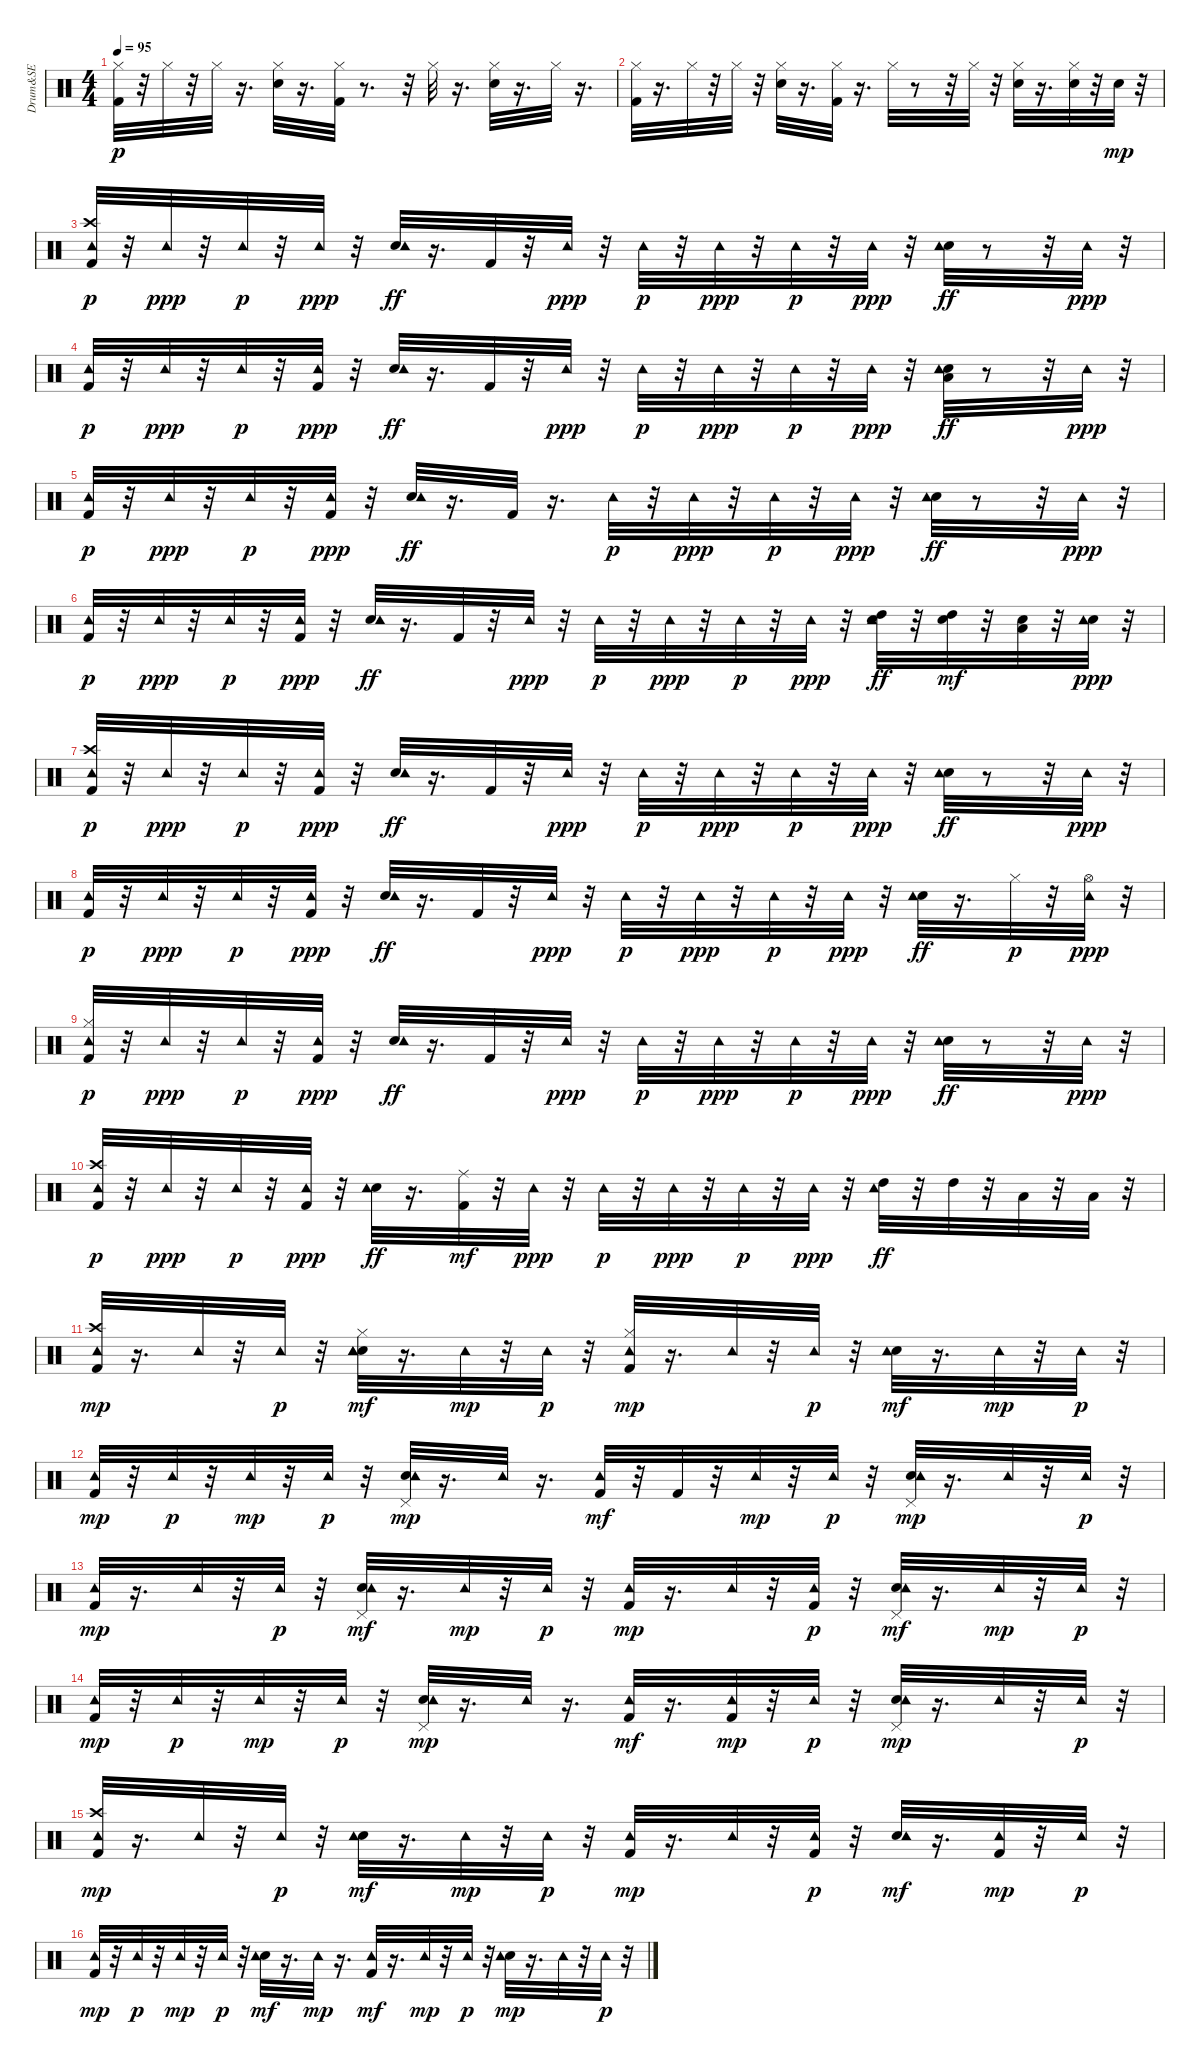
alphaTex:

\track ("Drum&SE" "Drum&SE") {instrument percussion}
\staff {score}
\articulation defaults
\ts (4 4)
\tempo 95
\clef neutral
\ks c
("Kick (hit) 2" "Hi-Hat (closed)").32{dy p} r.32 "Hi-Hat (closed)".32 r.32 "Hi-Hat (closed)".32 r.16{d} ("Snare (hit) 2" "Hi-Hat (closed)").32 r.16{d} ("Kick (hit) 2" "Hi-Hat (closed)").32 r.8{d} r.32 "Hi-Hat (closed)".32 r.16{d} ("Snare (hit) 2" "Hi-Hat (closed)").32 r.16{d} "Hi-Hat (closed)".32 r.16{d} |
("Kick (hit) 2" "Hi-Hat (closed)").32 r.16{d} "Hi-Hat (closed)".32 r.32 "Hi-Hat (closed)".32 r.32 ("Snare (hit) 2" "Hi-Hat (closed)").32 r.16{d} ("Kick (hit) 2" "Hi-Hat (closed)").32 r.16{d} "Hi-Hat (closed)".32 r.8 r.32 "Hi-Hat (closed)".32 r.32 ("Snare (hit) 2" "Hi-Hat (closed)").32 r.16{d} ("Snare (hit) 2" "Hi-Hat (closed)").32 r.32 "Snare (hit) 2".32{dy mp} r.32 |
("Kick (hit) 2" "Crash high (hit)" "Tambourine (hit)").32{dy p} r.32 "Tambourine (hit)".32{dy ppp} r.32 "Tambourine (hit)".32{dy p} r.32 "Tambourine (hit)".32{dy ppp} r.32 ("Snare (hit) 2" "Tambourine (hit)").32{dy ff} r.16{d} "Kick (hit) 2".32 r.32 "Tambourine (hit)".32{dy ppp} r.32 "Tambourine (hit)".32{dy p} r.32 "Tambourine (hit)".32{dy ppp} r.32 "Tambourine (hit)".32{dy p} r.32 "Tambourine (hit)".32{dy ppp} r.32 ("Snare (hit) 2" "Tambourine (hit)").32{dy ff} r.8 r.32 "Tambourine (hit)".32{dy ppp} r.32 |
("Kick (hit) 2" "Tambourine (hit)").32{dy p} r.32 "Tambourine (hit)".32{dy ppp} r.32 "Tambourine (hit)".32{dy p} r.32 ("Kick (hit) 2" "Tambourine (hit)").32{dy ppp} r.32 ("Snare (hit) 2" "Tambourine (hit)").32{dy ff} r.16{d} "Kick (hit) 2".32 r.32 "Tambourine (hit)".32{dy ppp} r.32 "Tambourine (hit)".32{dy p} r.32 "Tambourine (hit)".32{dy ppp} r.32 "Tambourine (hit)".32{dy p} r.32 "Tambourine (hit)".32{dy ppp} r.32 ("Snare (hit) 2" "Low Floor Tom (hit)" "Tambourine (hit)").32{dy ff} r.8 r.32 "Tambourine (hit)".32{dy ppp} r.32 |
("Kick (hit) 2" "Tambourine (hit)").32{dy p} r.32 "Tambourine (hit)".32{dy ppp} r.32 "Tambourine (hit)".32{dy p} r.32 ("Kick (hit) 2" "Tambourine (hit)").32{dy ppp} r.32 ("Snare (hit) 2" "Tambourine (hit)").32{dy ff} r.16{d} "Kick (hit) 2".32 r.16{d} "Tambourine (hit)".32{dy p} r.32 "Tambourine (hit)".32{dy ppp} r.32 "Tambourine (hit)".32{dy p} r.32 "Tambourine (hit)".32{dy ppp} r.32 ("Snare (hit) 2" "Tambourine (hit)").32{dy ff} r.8 r.32 "Tambourine (hit)".32{dy ppp} r.32 |
("Kick (hit) 2" "Tambourine (hit)").32{dy p} r.32 "Tambourine (hit)".32{dy ppp} r.32 "Tambourine (hit)".32{dy p} r.32 ("Kick (hit) 2" "Tambourine (hit)").32{dy ppp} r.32 ("Snare (hit) 2" "Tambourine (hit)").32{dy ff} r.16{d} "Kick (hit) 2".32 r.32 "Tambourine (hit)".32{dy ppp} r.32 "Tambourine (hit)".32{dy p} r.32 "Tambourine (hit)".32{dy ppp} r.32 "Tambourine (hit)".32{dy p} r.32 "Tambourine (hit)".32{dy ppp} r.32 ("Snare (hit) 2" "High Tom (hit)" "Tambourine (hit)").32{dy ff} r.32 ("Snare (hit) 2" "High Tom (hit)").32{dy mf} r.32 ("Snare (hit) 2" "Low Floor Tom (hit)").32 r.32 ("Snare (hit) 2" "Tambourine (hit)").32{dy ppp} r.32 |
("Kick (hit) 2" "Crash high (hit)" "Tambourine (hit)").32{dy p} r.32 "Tambourine (hit)".32{dy ppp} r.32 "Tambourine (hit)".32{dy p} r.32 ("Kick (hit) 2" "Tambourine (hit)").32{dy ppp} r.32 ("Snare (hit) 2" "Tambourine (hit)").32{dy ff} r.16{d} "Kick (hit) 2".32 r.32 "Tambourine (hit)".32{dy ppp} r.32 "Tambourine (hit)".32{dy p} r.32 "Tambourine (hit)".32{dy ppp} r.32 "Tambourine (hit)".32{dy p} r.32 "Tambourine (hit)".32{dy ppp} r.32 ("Snare (hit) 2" "Tambourine (hit)").32{dy ff} r.8 r.32 "Tambourine (hit)".32{dy ppp} r.32 |
("Kick (hit) 2" "Tambourine (hit)").32{dy p} r.32 "Tambourine (hit)".32{dy ppp} r.32 "Tambourine (hit)".32{dy p} r.32 ("Kick (hit) 2" "Tambourine (hit)").32{dy ppp} r.32 ("Snare (hit) 2" "Tambourine (hit)").32{dy ff} r.16{d} "Kick (hit) 2".32 r.32 "Tambourine (hit)".32{dy ppp} r.32 "Tambourine (hit)".32{dy p} r.32 "Tambourine (hit)".32{dy ppp} r.32 "Tambourine (hit)".32{dy p} r.32 "Tambourine (hit)".32{dy ppp} r.32 ("Snare (hit) 2" "Tambourine (hit)").32{dy ff} r.16{d} "Hi-Hat (closed)".32{dy p} r.32 ("Hi-Hat (open)" "Tambourine (hit)").32{dy ppp} r.32 |
("Kick (hit) 2" "Hi-Hat (closed)" "Tambourine (hit)").32{dy p} r.32 "Tambourine (hit)".32{dy ppp} r.32 "Tambourine (hit)".32{dy p} r.32 ("Kick (hit) 2" "Tambourine (hit)").32{dy ppp} r.32 ("Snare (hit) 2" "Tambourine (hit)").32{dy ff} r.16{d} "Kick (hit) 2".32 r.32 "Tambourine (hit)".32{dy ppp} r.32 "Tambourine (hit)".32{dy p} r.32 "Tambourine (hit)".32{dy ppp} r.32 "Tambourine (hit)".32{dy p} r.32 "Tambourine (hit)".32{dy ppp} r.32 ("Snare (hit) 2" "Tambourine (hit)").32{dy ff} r.8 r.32 "Tambourine (hit)".32{dy ppp} r.32 |
("Kick (hit) 2" "Crash high (hit)" "Tambourine (hit)").32{dy p} r.32 "Tambourine (hit)".32{dy ppp} r.32 "Tambourine (hit)".32{dy p} r.32 ("Kick (hit) 2" "Tambourine (hit)").32{dy ppp} r.32 ("Snare (hit) 2" "Tambourine (hit)").32{dy ff} r.16{d} ("Kick (hit) 2" "Ride (middle)").32{dy mf} r.32 "Tambourine (hit)".32{dy ppp} r.32 "Tambourine (hit)".32{dy p} r.32 "Tambourine (hit)".32{dy ppp} r.32 "Tambourine (hit)".32{dy p} r.32 "Tambourine (hit)".32{dy ppp} r.32 ("High Tom (hit)" "Tambourine (hit)").32{dy ff} r.32 "High Tom (hit)".32 r.32 "Low Floor Tom (hit)".32 r.32 "Low Tom (hit)".32 r.32 |
("Kick (hit) 2" "Crash high (hit)" "Tambourine (hit)").32{dy mp} r.16{d} "Tambourine (hit)".32 r.32 "Tambourine (hit)".32{dy p} r.32 ("Snare (hit) 2" "Tambourine (hit)" "Hi-Hat (closed)" "Tambourine (hit)").32{dy mf} r.16{d} "Tambourine (hit)".32{dy mp} r.32 "Tambourine (hit)".32{dy p} r.32 ("Kick (hit) 2" "Hi-Hat (closed)" "Tambourine (hit)").32{dy mp} r.16{d} "Tambourine (hit)".32 r.32 "Tambourine (hit)".32{dy p} r.32 ("Snare (hit) 2" "Tambourine (hit)").32{dy mf} r.16{d} "Tambourine (hit)".32{dy mp} r.32 "Tambourine (hit)".32{dy p} r.32 |
("Kick (hit) 2" "Tambourine (hit)").32{dy mp} r.32 "Tambourine (hit)".32{dy p} r.32 "Tambourine (hit)".32{dy mp} r.32 "Tambourine (hit)".32{dy p} r.32 ("Snare (hit) 2" "Pedal Hi-Hat (hit)" "Tambourine (hit)").32{dy mp} r.16{d} "Tambourine (hit)".32 r.16{d} ("Kick (hit) 2" "Tambourine (hit)").32{dy mf} r.32 "Kick (hit) 2".32 r.32 "Tambourine (hit)".32{dy mp} r.32 "Tambourine (hit)".32{dy p} r.32 ("Snare (hit) 2" "Pedal Hi-Hat (hit)" "Tambourine (hit)").32{dy mp} r.16{d} "Tambourine (hit)".32 r.32 "Tambourine (hit)".32{dy p} r.32 |
("Kick (hit) 2" "Tambourine (hit)").32{dy mp} r.16{d} "Tambourine (hit)".32 r.32 "Tambourine (hit)".32{dy p} r.32 ("Snare (hit) 2" "Pedal Hi-Hat (hit)" "Tambourine (hit)").32{dy mf} r.16{d} "Tambourine (hit)".32{dy mp} r.32 "Tambourine (hit)".32{dy p} r.32 ("Kick (hit) 2" "Tambourine (hit)").32{dy mp} r.16{d} "Tambourine (hit)".32 r.32 ("Kick (hit) 2" "Tambourine (hit)").32{dy p} r.32 ("Snare (hit) 2" "Pedal Hi-Hat (hit)" "Tambourine (hit)").32{dy mf} r.16{d} "Tambourine (hit)".32{dy mp} r.32 "Tambourine (hit)".32{dy p} r.32 |
("Kick (hit) 2" "Tambourine (hit)").32{dy mp} r.32 "Tambourine (hit)".32{dy p} r.32 "Tambourine (hit)".32{dy mp} r.32 "Tambourine (hit)".32{dy p} r.32 ("Snare (hit) 2" "Pedal Hi-Hat (hit)" "Tambourine (hit)").32{dy mp} r.16{d} "Tambourine (hit)".32 r.16{d} ("Kick (hit) 2" "Tambourine (hit)").32{dy mf} r.16{d} ("Kick (hit) 2" "Tambourine (hit)").32{dy mp} r.32 "Tambourine (hit)".32{dy p} r.32 ("Snare (hit) 2" "Pedal Hi-Hat (hit)" "Tambourine (hit)").32{dy mp} r.16{d} "Tambourine (hit)".32 r.32 "Tambourine (hit)".32{dy p} r.32 |
("Kick (hit) 2" "Crash high (hit)" "Tambourine (hit)").32{dy mp} r.16{d} "Tambourine (hit)".32 r.32 "Tambourine (hit)".32{dy p} r.32 ("Snare (hit) 2" "Tambourine (hit)").32{dy mf} r.16{d} "Tambourine (hit)".32{dy mp} r.32 "Tambourine (hit)".32{dy p} r.32 ("Kick (hit) 2" "Tambourine (hit)").32{dy mp} r.16{d} "Tambourine (hit)".32 r.32 ("Kick (hit) 2" "Tambourine (hit)").32{dy p} r.32 ("Snare (hit) 2" "Tambourine (hit)").32{dy mf} r.16{d} ("Kick (hit) 2" "Tambourine (hit)").32{dy mp} r.32 "Tambourine (hit)".32{dy p} r.32 |
("Kick (hit) 2" "Tambourine (hit)").32{dy mp} r.32 "Tambourine (hit)".32{dy p} r.32 "Tambourine (hit)".32{dy mp} r.32 "Tambourine (hit)".32{dy p} r.32 ("Snare (hit) 2" "Tambourine (hit)").32{dy mf} r.16{d} "Tambourine (hit)".32{dy mp} r.16{d} ("Kick (hit) 2" "Tambourine (hit)").32{dy mf} r.16{d} "Tambourine (hit)".32{dy mp} r.32 "Tambourine (hit)".32{dy p} r.32 ("Snare (hit) 2" "Tambourine (hit)").32{dy mp} r.16{d} "Tambourine (hit)".32 r.32 "Tambourine (hit)".32{dy p} r.32
